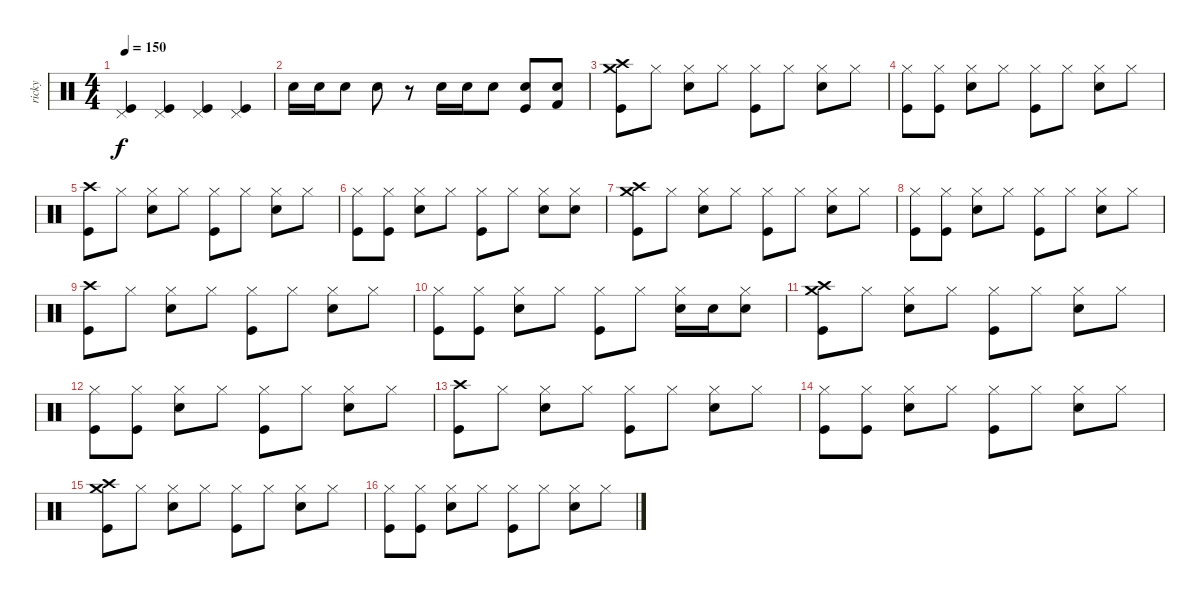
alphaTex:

\track ("ricky" "ricky") {instrument percussion}
\staff {score}
\articulation defaults
\ts (4 4)
\tempo 150
\clef neutral
\ks c
("Pedal Hi-Hat (hit)" "Kick (hit)").4{dy f} ("Pedal Hi-Hat (hit)" "Kick (hit)").4 ("Pedal Hi-Hat (hit)" "Kick (hit)").4 ("Pedal Hi-Hat (hit)" "Kick (hit)").4 |
"Electric Snare (hit)".16 "Electric Snare (hit)".16 "Electric Snare (hit)".8 "Electric Snare (hit)".8 r.8 "Electric Snare (hit)".16 "Electric Snare (hit)".16 "Electric Snare (hit)".8 ("Electric Snare (hit)" "Kick (hit)").8 ("Electric Snare (hit)" "Kick (hit) 2").8 |
("Crash medium (hit)" "Crash high (hit)" "Kick (hit)").8 "Hi-Hat (closed)".8 ("Hi-Hat (closed)" "Electric Snare (hit)").8 "Hi-Hat (closed)".8 ("Hi-Hat (closed)" "Kick (hit)").8 "Hi-Hat (closed)".8 ("Hi-Hat (closed)" "Electric Snare (hit)").8 "Hi-Hat (closed)".8 |
("Hi-Hat (closed)" "Kick (hit)").8 ("Hi-Hat (closed)" "Kick (hit)").8 ("Hi-Hat (closed)" "Electric Snare (hit)").8 "Hi-Hat (closed)".8 ("Hi-Hat (closed)" "Kick (hit)").8 "Hi-Hat (closed)".8 ("Hi-Hat (closed)" "Electric Snare (hit)").8 "Hi-Hat (closed)".8 |
("Crash high (hit)" "Kick (hit)").8 "Hi-Hat (closed)".8 ("Hi-Hat (closed)" "Electric Snare (hit)").8 "Hi-Hat (closed)".8 ("Hi-Hat (closed)" "Kick (hit)").8 "Hi-Hat (closed)".8 ("Hi-Hat (closed)" "Electric Snare (hit)").8 "Hi-Hat (closed)".8 |
("Hi-Hat (closed)" "Kick (hit)").8 ("Hi-Hat (closed)" "Kick (hit)").8 ("Hi-Hat (closed)" "Electric Snare (hit)").8 "Hi-Hat (closed)".8 ("Hi-Hat (closed)" "Kick (hit)").8 "Hi-Hat (closed)".8 ("Hi-Hat (closed)" "Electric Snare (hit)").8 ("Hi-Hat (closed)" "Electric Snare (hit)").8 |
("Crash medium (hit)" "Crash high (hit)" "Kick (hit)").8 "Hi-Hat (closed)".8 ("Hi-Hat (closed)" "Electric Snare (hit)").8 "Hi-Hat (closed)".8 ("Hi-Hat (closed)" "Kick (hit)").8 "Hi-Hat (closed)".8 ("Hi-Hat (closed)" "Electric Snare (hit)").8 "Hi-Hat (closed)".8 |
("Hi-Hat (closed)" "Kick (hit)").8 ("Hi-Hat (closed)" "Kick (hit)").8 ("Hi-Hat (closed)" "Electric Snare (hit)").8 "Hi-Hat (closed)".8 ("Hi-Hat (closed)" "Kick (hit)").8 "Hi-Hat (closed)".8 ("Hi-Hat (closed)" "Electric Snare (hit)").8 "Hi-Hat (closed)".8 |
("Crash high (hit)" "Kick (hit)").8 "Hi-Hat (closed)".8 ("Hi-Hat (closed)" "Electric Snare (hit)").8 "Hi-Hat (closed)".8 ("Hi-Hat (closed)" "Kick (hit)").8 "Hi-Hat (closed)".8 ("Hi-Hat (closed)" "Electric Snare (hit)").8 "Hi-Hat (closed)".8 |
("Hi-Hat (closed)" "Kick (hit)").8 ("Hi-Hat (closed)" "Kick (hit)").8 ("Hi-Hat (closed)" "Electric Snare (hit)").8 "Hi-Hat (closed)".8 ("Hi-Hat (closed)" "Kick (hit)").8 "Hi-Hat (closed)".8 ("Hi-Hat (closed)" "Electric Snare (hit)").16 "Electric Snare (hit)".16 ("Hi-Hat (closed)" "Electric Snare (hit)").8 |
("Crash medium (hit)" "Crash high (hit)" "Kick (hit)").8 "Hi-Hat (closed)".8 ("Hi-Hat (closed)" "Electric Snare (hit)").8 "Hi-Hat (closed)".8 ("Hi-Hat (closed)" "Kick (hit)").8 "Hi-Hat (closed)".8 ("Hi-Hat (closed)" "Electric Snare (hit)").8 "Hi-Hat (closed)".8 |
("Hi-Hat (closed)" "Kick (hit)").8 ("Hi-Hat (closed)" "Kick (hit)").8 ("Hi-Hat (closed)" "Electric Snare (hit)").8 "Hi-Hat (closed)".8 ("Hi-Hat (closed)" "Kick (hit)").8 "Hi-Hat (closed)".8 ("Hi-Hat (closed)" "Electric Snare (hit)").8 "Hi-Hat (closed)".8 |
("Crash high (hit)" "Kick (hit)").8 "Hi-Hat (closed)".8 ("Hi-Hat (closed)" "Electric Snare (hit)").8 "Hi-Hat (closed)".8 ("Hi-Hat (closed)" "Kick (hit)").8 "Hi-Hat (closed)".8 ("Hi-Hat (closed)" "Electric Snare (hit)").8 "Hi-Hat (closed)".8 |
("Hi-Hat (closed)" "Kick (hit)").8 ("Hi-Hat (closed)" "Kick (hit)").8 ("Hi-Hat (closed)" "Electric Snare (hit)").8 "Hi-Hat (closed)".8 ("Hi-Hat (closed)" "Kick (hit)").8 "Hi-Hat (closed)".8 ("Hi-Hat (closed)" "Electric Snare (hit)").8 "Hi-Hat (closed)".8 |
("Crash medium (hit)" "Crash high (hit)" "Kick (hit)").8 "Hi-Hat (closed)".8 ("Hi-Hat (closed)" "Electric Snare (hit)").8 "Hi-Hat (closed)".8 ("Hi-Hat (closed)" "Kick (hit)").8 "Hi-Hat (closed)".8 ("Hi-Hat (closed)" "Electric Snare (hit)").8 "Hi-Hat (closed)".8 |
("Hi-Hat (closed)" "Kick (hit)").8 ("Hi-Hat (closed)" "Kick (hit)").8 ("Hi-Hat (closed)" "Electric Snare (hit)").8 "Hi-Hat (closed)".8 ("Hi-Hat (closed)" "Kick (hit)").8 "Hi-Hat (closed)".8 ("Hi-Hat (closed)" "Electric Snare (hit)").8 "Hi-Hat (closed)".8
